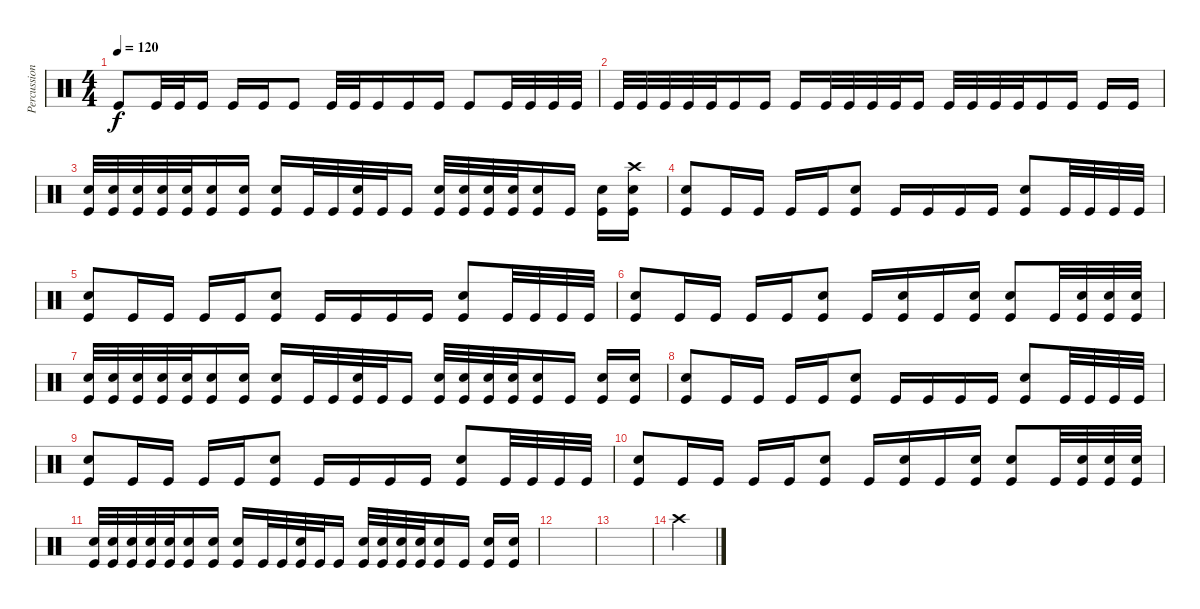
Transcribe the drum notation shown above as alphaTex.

\track ("Percussion" "Percussion") {instrument percussion}
\staff {score}
\articulation defaults
\ts (4 4)
\tempo 120
\clef neutral
\ks c "Kick (hit)".8{dy f} "Kick (hit)".32 "Kick (hit)".32 "Kick (hit)".16 "Kick (hit)".16 "Kick (hit)".16 "Kick (hit)".8 "Kick (hit)".32 "Kick (hit)".32 "Kick (hit)".16 "Kick (hit)".16 "Kick (hit)".16 "Kick (hit)".8 "Kick (hit)".32 "Kick (hit)".32 "Kick (hit)".32 "Kick (hit)".32
|
"Kick (hit)".32 "Kick (hit)".32 "Kick (hit)".32 "Kick (hit)".32 "Kick (hit)".32 "Kick (hit)".16 "Kick (hit)".16 "Kick (hit)".16 "Kick (hit)".32 "Kick (hit)".32 "Kick (hit)".32 "Kick (hit)".32 "Kick (hit)".16 "Kick (hit)".32 "Kick (hit)".32 "Kick (hit)".32 "Kick (hit)".32 "Kick (hit)".16 "Kick (hit)".16 "Kick (hit)".16 "Kick (hit)".16 |
("Snare (hit) 2" "Kick (hit)").32 ("Snare (hit) 2" "Kick (hit)").32 ("Snare (hit) 2" "Kick (hit)").32 ("Snare (hit) 2" "Kick (hit)").32 ("Snare (hit) 2" "Kick (hit)").32 ("Snare (hit) 2" "Kick (hit)").16 ("Snare (hit) 2" "Kick (hit)").16 ("Snare (hit) 2" "Kick (hit)").16 "Kick (hit)".32 "Kick (hit)".32 ("Snare (hit) 2" "Kick (hit)").32 "Kick (hit)".32 "Kick (hit)".16 ("Snare (hit) 2" "Kick (hit)").32 ("Snare (hit) 2" "Kick (hit)").32 ("Snare (hit) 2" "Kick (hit)").32 ("Snare (hit) 2" "Kick (hit)").32 ("Snare (hit) 2" "Kick (hit)").16 "Kick (hit)".16 ("Snare (hit) 2" "Kick (hit)").16 ("Snare (hit) 2" "Kick (hit)" "Crash high (hit)").16 |
("Snare (hit) 2" "Kick (hit)").8 "Kick (hit)".16 "Kick (hit)".16 "Kick (hit)".16 "Kick (hit)".16 ("Snare (hit) 2" "Kick (hit)").8 "Kick (hit)".16 "Kick (hit)".16 "Kick (hit)".16 "Kick (hit)".16 ("Snare (hit) 2" "Kick (hit)").8 "Kick (hit)".32 "Kick (hit)".32 "Kick (hit)".32 "Kick (hit)".32 |
("Snare (hit) 2" "Kick (hit)").8 "Kick (hit)".16 "Kick (hit)".16 "Kick (hit)".16 "Kick (hit)".16 ("Snare (hit) 2" "Kick (hit)").8 "Kick (hit)".16 "Kick (hit)".16 "Kick (hit)".16 "Kick (hit)".16 ("Snare (hit) 2" "Kick (hit)").8 "Kick (hit)".32 "Kick (hit)".32 "Kick (hit)".32 "Kick (hit)".32 |
("Snare (hit) 2" "Kick (hit)").8 "Kick (hit)".16 "Kick (hit)".16 "Kick (hit)".16 "Kick (hit)".16 ("Snare (hit) 2" "Kick (hit)").8 "Kick (hit)".16 ("Snare (hit) 2" "Kick (hit)").16 "Kick (hit)".16 ("Snare (hit) 2" "Kick (hit)").16 ("Snare (hit) 2" "Kick (hit)").8 "Kick (hit)".32 ("Snare (hit) 2" "Kick (hit)").32 ("Snare (hit) 2" "Kick (hit)").32 ("Snare (hit) 2" "Kick (hit)").32 |
("Snare (hit) 2" "Kick (hit)").32 ("Snare (hit) 2" "Kick (hit)").32 ("Snare (hit) 2" "Kick (hit)").32 ("Snare (hit) 2" "Kick (hit)").32 ("Snare (hit) 2" "Kick (hit)").32 ("Snare (hit) 2" "Kick (hit)").16 ("Snare (hit) 2" "Kick (hit)").16 ("Snare (hit) 2" "Kick (hit)").16 "Kick (hit)".32 "Kick (hit)".32 ("Snare (hit) 2" "Kick (hit)").32 "Kick (hit)".32 "Kick (hit)".16 ("Snare (hit) 2" "Kick (hit)").32 ("Snare (hit) 2" "Kick (hit)").32 ("Snare (hit) 2" "Kick (hit)").32 ("Snare (hit) 2" "Kick (hit)").32 ("Snare (hit) 2" "Kick (hit)").16 "Kick (hit)".16 ("Snare (hit) 2" "Kick (hit)").16 ("Snare (hit) 2" "Kick (hit)").16 |
("Snare (hit) 2" "Kick (hit)").8 "Kick (hit)".16 "Kick (hit)".16 "Kick (hit)".16 "Kick (hit)".16 ("Snare (hit) 2" "Kick (hit)").8 "Kick (hit)".16 "Kick (hit)".16 "Kick (hit)".16 "Kick (hit)".16 ("Snare (hit) 2" "Kick (hit)").8 "Kick (hit)".32 "Kick (hit)".32 "Kick (hit)".32 "Kick (hit)".32 |
("Snare (hit) 2" "Kick (hit)").8 "Kick (hit)".16 "Kick (hit)".16 "Kick (hit)".16 "Kick (hit)".16 ("Snare (hit) 2" "Kick (hit)").8 "Kick (hit)".16 "Kick (hit)".16 "Kick (hit)".16 "Kick (hit)".16 ("Snare (hit) 2" "Kick (hit)").8 "Kick (hit)".32 "Kick (hit)".32 "Kick (hit)".32 "Kick (hit)".32 |
("Snare (hit) 2" "Kick (hit)").8 "Kick (hit)".16 "Kick (hit)".16 "Kick (hit)".16 "Kick (hit)".16 ("Snare (hit) 2" "Kick (hit)").8 "Kick (hit)".16 ("Snare (hit) 2" "Kick (hit)").16 "Kick (hit)".16 ("Snare (hit) 2" "Kick (hit)").16 ("Snare (hit) 2" "Kick (hit)").8 "Kick (hit)".32 ("Snare (hit) 2" "Kick (hit)").32 ("Snare (hit) 2" "Kick (hit)").32 ("Snare (hit) 2" "Kick (hit)").32 |
("Snare (hit) 2" "Kick (hit)").32 ("Snare (hit) 2" "Kick (hit)").32 ("Snare (hit) 2" "Kick (hit)").32 ("Snare (hit) 2" "Kick (hit)").32 ("Snare (hit) 2" "Kick (hit)").32 ("Snare (hit) 2" "Kick (hit)").16 ("Snare (hit) 2" "Kick (hit)").16 ("Snare (hit) 2" "Kick (hit)").16 "Kick (hit)".32 "Kick (hit)".32 ("Snare (hit) 2" "Kick (hit)").32 "Kick (hit)".32 "Kick (hit)".16 ("Snare (hit) 2" "Kick (hit)").32 ("Snare (hit) 2" "Kick (hit)").32 ("Snare (hit) 2" "Kick (hit)").32 ("Snare (hit) 2" "Kick (hit)").32 ("Snare (hit) 2" "Kick (hit)").16 "Kick (hit)".16 ("Snare (hit) 2" "Kick (hit)").16 ("Snare (hit) 2" "Kick (hit)").16 |
|
|
"Crash high (hit)".4
